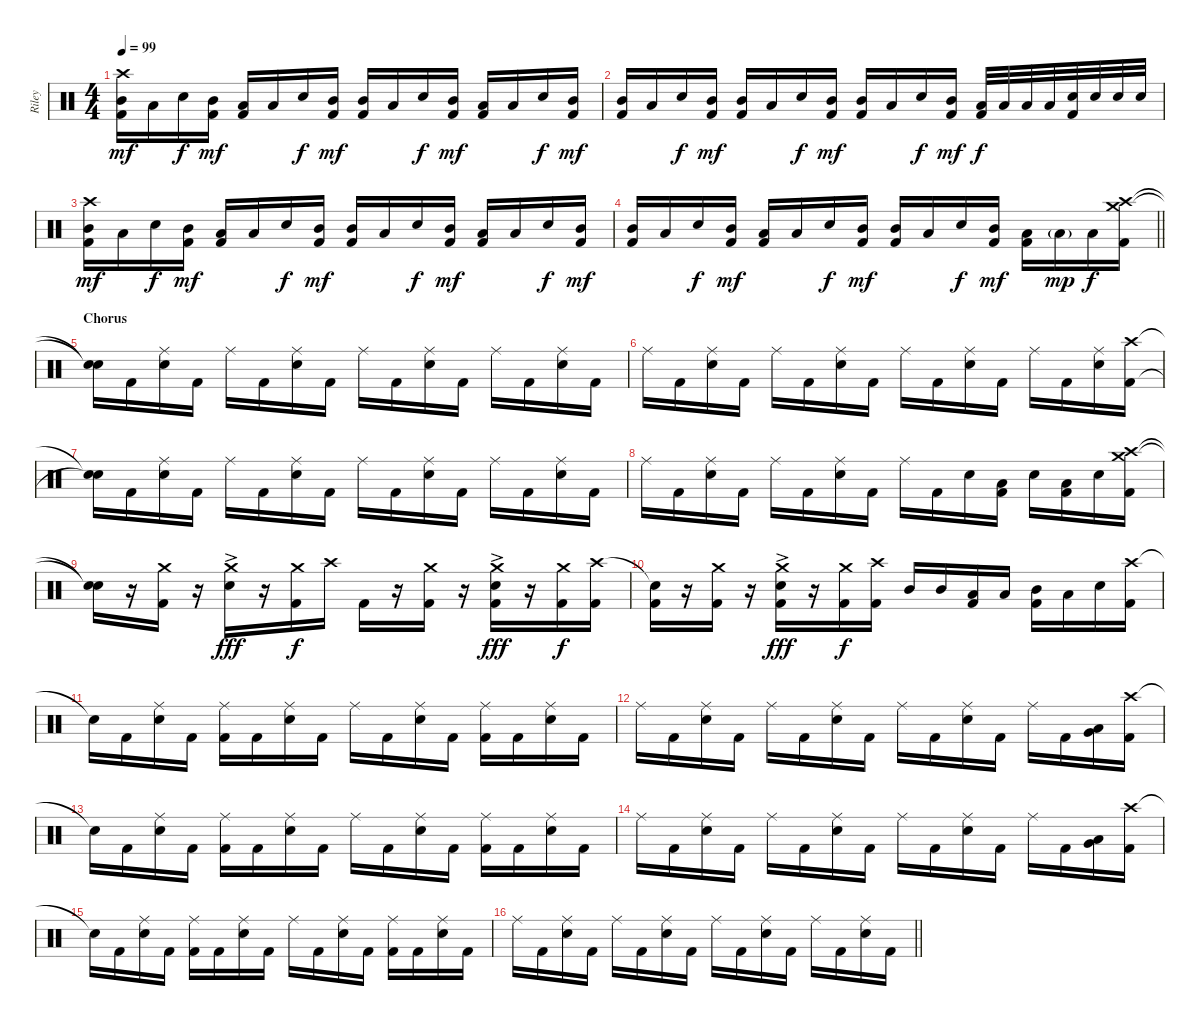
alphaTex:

\track ("Riley" "Riley") {instrument percussion}
\staff {score}
\articulation defaults
\ts (4 4)
\tempo 99
\clef neutral
\ks c
("Crash high (hit)" "Mid Tom (hit)" "Kick (hit) 2").16{dy mf} "Low Tom (hit)".16 "Electric Snare (hit)".16{dy f} ("Mid Tom (hit)" "Kick (hit) 2").16{dy mf} ("Low Tom (hit)" "Kick (hit) 2").16 "Low Tom (hit)".16 "Electric Snare (hit)".16{dy f} ("Mid Tom (hit)" "Kick (hit) 2").16{dy mf} ("Mid Tom (hit)" "Kick (hit) 2").16 "Low Tom (hit)".16 "Electric Snare (hit)".16{dy f} ("Mid Tom (hit)" "Kick (hit) 2").16{dy mf} ("Low Tom (hit)" "Kick (hit) 2").16 "Low Tom (hit)".16 "Electric Snare (hit)".16{dy f} ("Mid Tom (hit)" "Kick (hit) 2").16{dy mf} |
("Mid Tom (hit)" "Kick (hit) 2").16 "Low Tom (hit)".16 "Electric Snare (hit)".16{dy f} ("Mid Tom (hit)" "Kick (hit) 2").16{dy mf} ("Mid Tom (hit)" "Kick (hit) 2").16 "Low Tom (hit)".16 "Electric Snare (hit)".16{dy f} ("Mid Tom (hit)" "Kick (hit) 2").16{dy mf} ("Mid Tom (hit)" "Kick (hit) 2").16 "Low Tom (hit)".16 "Electric Snare (hit)".16{dy f} ("Mid Tom (hit)" "Kick (hit) 2").16{dy mf} ("Low Tom (hit)" "Kick (hit) 2").32{dy f} "Low Tom (hit)".32 "Low Tom (hit)".32 "Low Tom (hit)".32 ("Electric Snare (hit)" "Kick (hit) 2").32 "Electric Snare (hit)".32 "Electric Snare (hit)".32 "Electric Snare (hit)".32 |
("Crash high (hit)" "Mid Tom (hit)" "Kick (hit) 2").16{dy mf} "Low Tom (hit)".16 "Electric Snare (hit)".16{dy f} ("Mid Tom (hit)" "Kick (hit) 2").16{dy mf} ("Low Tom (hit)" "Kick (hit) 2").16 "Low Tom (hit)".16 "Electric Snare (hit)".16{dy f} ("Mid Tom (hit)" "Kick (hit) 2").16{dy mf} ("Mid Tom (hit)" "Kick (hit) 2").16 "Low Tom (hit)".16 "Electric Snare (hit)".16{dy f} ("Mid Tom (hit)" "Kick (hit) 2").16{dy mf} ("Low Tom (hit)" "Kick (hit) 2").16 "Low Tom (hit)".16 "Electric Snare (hit)".16{dy f} ("Mid Tom (hit)" "Kick (hit) 2").16{dy mf} |
\barLineRight lightlight
("Mid Tom (hit)" "Kick (hit) 2").16 "Low Tom (hit)".16 "Electric Snare (hit)".16{dy f} ("Mid Tom (hit)" "Kick (hit) 2").16{dy mf} ("Low Tom (hit)" "Kick (hit) 2").16 "Low Tom (hit)".16 "Electric Snare (hit)".16{dy f} ("Mid Tom (hit)" "Kick (hit) 2").16{dy mf} ("Mid Tom (hit)" "Kick (hit) 2").16 "Low Tom (hit)".16 "Electric Snare (hit)".16{dy f} ("Mid Tom (hit)" "Kick (hit) 2").16{dy mf} ("Low Tom (hit)" "Kick (hit) 2").16 "Low Tom (hit)"{g}.16{dy mp} "Low Tom (hit)".16{dy f} ("Crash high (hit)" "Crash medium (hit)" "Kick (hit) 2").16 |
\section ("" "Chorus")
("Snare (hit)"{t} "Snare (hit)"{t}).16 "Kick (hit) 2".16 ("Ride (middle)" "Electric Snare (hit)").16 "Kick (hit) 2".16 "Ride (middle)".16 "Kick (hit) 2".16 ("Ride (middle)" "Electric Snare (hit)").16 "Kick (hit) 2".16 "Ride (middle)".16 "Kick (hit) 2".16 ("Ride (middle)" "Electric Snare (hit)").16 "Kick (hit) 2".16 "Ride (middle)".16 "Kick (hit) 2".16 ("Ride (middle)" "Electric Snare (hit)").16 "Kick (hit) 2".16 |
"Ride (middle)".16 "Kick (hit) 2".16 ("Ride (middle)" "Electric Snare (hit)").16 "Kick (hit) 2".16 "Ride (middle)".16 "Kick (hit) 2".16 ("Ride (middle)" "Electric Snare (hit)").16 "Kick (hit) 2".16 "Ride (middle)".16 "Kick (hit) 2".16 ("Ride (middle)" "Electric Snare (hit)").16 "Kick (hit) 2".16 "Ride (middle)".16 "Kick (hit) 2".16 ("Ride (middle)" "Electric Snare (hit)").16 ("Crash high (hit)" "Kick (hit) 2").16 |
("Snare (hit)"{t} "Snare (hit)"{t}).16 "Kick (hit) 2".16 ("Ride (middle)" "Electric Snare (hit)").16 "Kick (hit) 2".16 "Ride (middle)".16 "Kick (hit) 2".16 ("Ride (middle)" "Electric Snare (hit)").16 "Kick (hit) 2".16 "Ride (middle)".16 "Kick (hit) 2".16 ("Ride (middle)" "Electric Snare (hit)").16 "Kick (hit) 2".16 "Ride (middle)".16 "Kick (hit) 2".16 ("Ride (middle)" "Electric Snare (hit)").16 "Kick (hit) 2".16 |
"Ride (middle)".16 "Kick (hit) 2".16 ("Ride (middle)" "Electric Snare (hit)").16 "Kick (hit) 2".16 "Ride (middle)".16 "Kick (hit) 2".16 ("Ride (middle)" "Electric Snare (hit)").16 "Kick (hit) 2".16 "Ride (middle)".16 "Kick (hit) 2".16 "Electric Snare (hit)".16 ("Low Tom (hit)" "Kick (hit) 2").16 "Electric Snare (hit)".16 ("Low Tom (hit)" "Kick (hit) 2").16 "Electric Snare (hit)".16 ("Crash high (hit)" "Crash medium (hit)" "Kick (hit) 2").16 |
("Snare (hit)"{t} "Snare (hit)"{t}).16 r.16 ("Crash medium (hit)" "Kick (hit) 2").16 r.16 ("Crash medium (hit)" "Electric Snare (hit)"{ac}).16{dy fff} r.16 ("Crash medium (hit)" "Kick (hit) 2").16{dy f} "Crash high (hit)".16 "Kick (hit) 2".16 r.16 ("Crash medium (hit)" "Kick (hit) 2").16 r.16 ("Crash medium (hit)" "Electric Snare (hit)"{ac} "Kick (hit) 2").16{dy fff} r.16 ("Crash medium (hit)" "Kick (hit) 2").16{dy f} ("Crash high (hit)" "Kick (hit) 2").16 |
("Snare (hit)"{t} "Kick (hit) 2").16 r.16 ("Crash medium (hit)" "Kick (hit) 2").16 r.16 ("Crash medium (hit)" "Electric Snare (hit)"{ac} "Kick (hit) 2").16{dy fff} r.16 ("Crash medium (hit)" "Kick (hit) 2").16{dy f} ("Crash high (hit)" "Kick (hit) 2").16 "Mid Tom (hit)".16 "Mid Tom (hit)".16 ("Low Tom (hit)" "Kick (hit) 2").16 "Low Tom (hit)".16 ("Mid Tom (hit)" "Kick (hit) 2").16 "Low Tom (hit)".16 "Electric Snare (hit)".16 ("Crash high (hit)" "Kick (hit) 2").16 |
"Snare (hit)"{t}.16 "Kick (hit) 2".16 ("Ride (middle)" "Electric Snare (hit)").16 "Kick (hit) 2".16 ("Ride (middle)" "Kick (hit) 2").16 "Kick (hit) 2".16 ("Ride (middle)" "Electric Snare (hit)").16 "Kick (hit) 2".16 "Ride (middle)".16 "Kick (hit) 2".16 ("Ride (middle)" "Electric Snare (hit)").16 "Kick (hit) 2".16 ("Ride (middle)" "Kick (hit) 2").16 "Kick (hit) 2".16 ("Ride (middle)" "Electric Snare (hit)").16 "Kick (hit) 2".16 |
"Ride (middle)".16 "Kick (hit) 2".16 ("Ride (middle)" "Electric Snare (hit)").16 "Kick (hit) 2".16 "Ride (middle)".16 "Kick (hit) 2".16 ("Ride (middle)" "Electric Snare (hit)").16 "Kick (hit) 2".16 "Ride (middle)".16 "Kick (hit) 2".16 ("Ride (middle)" "Electric Snare (hit)").16 "Kick (hit) 2".16 "Ride (middle)".16 "Kick (hit) 2".16 ("Very Low Tom (hit)" "Low Tom (hit)").16 ("Crash high (hit)" "Kick (hit) 2").16 |
"Snare (hit)"{t}.16 "Kick (hit) 2".16 ("Ride (middle)" "Electric Snare (hit)").16 "Kick (hit) 2".16 ("Ride (middle)" "Kick (hit) 2").16 "Kick (hit) 2".16 ("Ride (middle)" "Electric Snare (hit)").16 "Kick (hit) 2".16 "Ride (middle)".16 "Kick (hit) 2".16 ("Ride (middle)" "Electric Snare (hit)").16 "Kick (hit) 2".16 ("Ride (middle)" "Kick (hit) 2").16 "Kick (hit) 2".16 ("Ride (middle)" "Electric Snare (hit)").16 "Kick (hit) 2".16 |
"Ride (middle)".16 "Kick (hit) 2".16 ("Ride (middle)" "Electric Snare (hit)").16 "Kick (hit) 2".16 "Ride (middle)".16 "Kick (hit) 2".16 ("Ride (middle)" "Electric Snare (hit)").16 "Kick (hit) 2".16 "Ride (middle)".16 "Kick (hit) 2".16 ("Ride (middle)" "Electric Snare (hit)").16 "Kick (hit) 2".16 "Ride (middle)".16 "Kick (hit) 2".16 ("Very Low Tom (hit)" "Low Tom (hit)").16 ("Crash high (hit)" "Kick (hit) 2").16 |
"Snare (hit)"{t}.16 "Kick (hit) 2".16 ("Ride (middle)" "Electric Snare (hit)").16 "Kick (hit) 2".16 ("Ride (middle)" "Kick (hit) 2").16 "Kick (hit) 2".16 ("Ride (middle)" "Electric Snare (hit)").16 "Kick (hit) 2".16 "Ride (middle)".16 "Kick (hit) 2".16 ("Ride (middle)" "Electric Snare (hit)").16 "Kick (hit) 2".16 ("Ride (middle)" "Kick (hit) 2").16 "Kick (hit) 2".16 ("Ride (middle)" "Electric Snare (hit)").16 "Kick (hit) 2".16 |
\barLineRight lightlight "Ride (middle)".16 "Kick (hit) 2".16
("Ride (middle)" "Electric Snare (hit)").16 "Kick (hit) 2".16 "Ride (middle)".16 "Kick (hit) 2".16 ("Ride (middle)" "Electric Snare (hit)").16 "Kick (hit) 2".16 "Ride (middle)".16 "Kick (hit) 2".16 ("Ride (middle)" "Electric Snare (hit)").16 "Kick (hit) 2".16 "Ride (middle)".16 "Kick (hit) 2".16 ("Ride (middle)" "Electric Snare (hit)").16 "Kick (hit) 2".16
